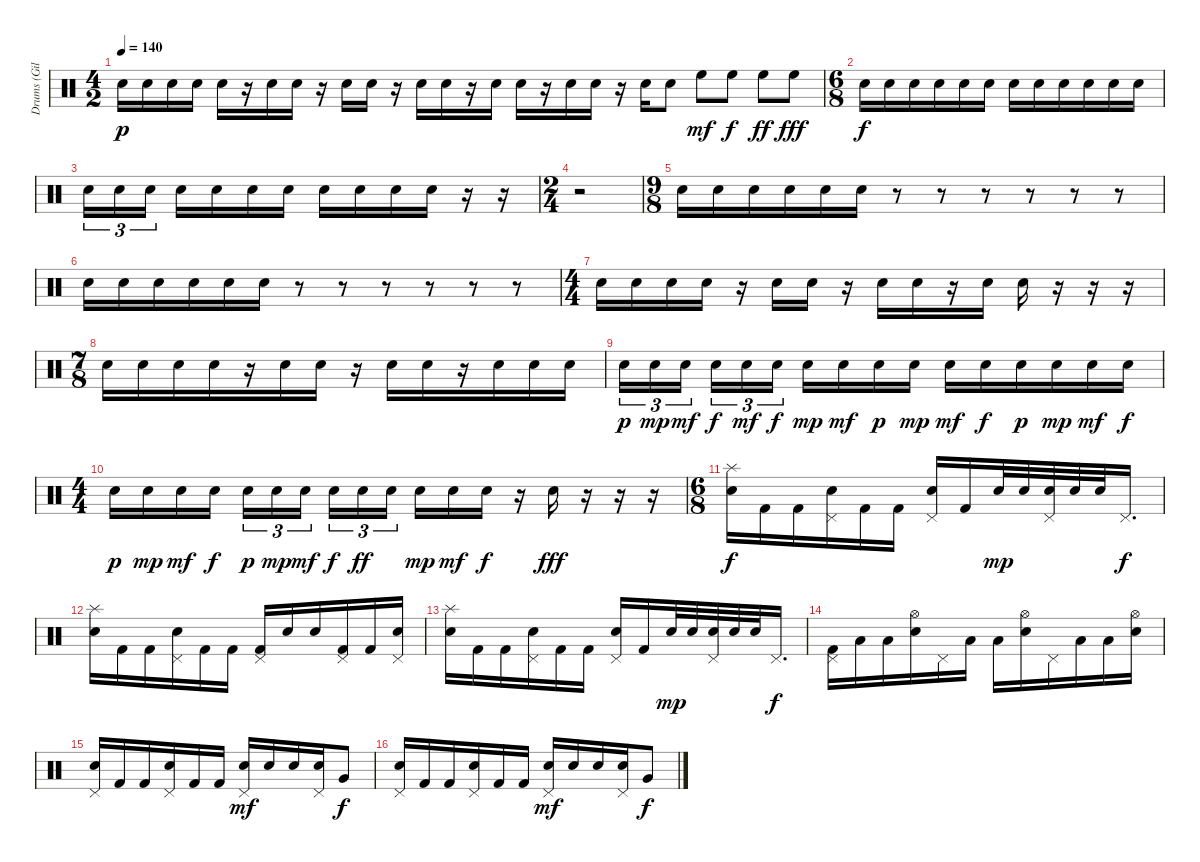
\track ("Drums (Giles)" "Drums (Gil") {instrument percussion}
\staff {score}
\articulation defaults
\ts (4 2)
\tempo 140
\clef neutral
\ks c "Electric Snare (hit)".16{dy p} "Electric Snare (hit)".16 "Electric Snare (hit)".16 "Electric Snare (hit)".16 "Electric Snare (hit)".16
r.16 "Electric Snare (hit)".16 "Electric Snare (hit)".16 r.16 "Electric Snare (hit)".16 "Electric Snare (hit)".16 r.16 "Electric Snare (hit)".16 "Electric Snare (hit)".16 r.16 "Electric Snare (hit)".16 "Electric Snare (hit)".16 r.16 "Electric Snare (hit)".16 "Electric Snare (hit)".16 r.16 "Electric Snare (hit)".16 "Electric Snare (hit)".8 "High Floor Tom (hit)".8{dy mf} "High Floor Tom (hit)".8{dy f} "High Floor Tom (hit)".8{dy ff} "High Floor Tom (hit)".8{dy fff} |
\ts (6 8)
"Electric Snare (hit)".16{dy f} "Electric Snare (hit)".16 "Electric Snare (hit)".16 "Electric Snare (hit)".16 "Electric Snare (hit)".16 "Electric Snare (hit)".16 "Electric Snare (hit)".16 "Electric Snare (hit)".16 "Electric Snare (hit)".16 "Electric Snare (hit)".16 "Electric Snare (hit)".16 "Electric Snare (hit)".16 |
"Electric Snare (hit)".16{tu (3 2)} "Electric Snare (hit)".16{tu (3 2)} "Electric Snare (hit)".16{tu (3 2) beam splitsecondary} "Electric Snare (hit)".16 "Electric Snare (hit)".16 "Electric Snare (hit)".16 "Electric Snare (hit)".16 "Electric Snare (hit)".16 "Electric Snare (hit)".16 "Electric Snare (hit)".16 "Electric Snare (hit)".16 r.16 r.16 |
\ts (2 4)
r.2 |
\ts (9 8)
"Electric Snare (hit)".16 "Electric Snare (hit)".16 "Electric Snare (hit)".16 "Electric Snare (hit)".16 "Electric Snare (hit)".16 "Electric Snare (hit)".16 r.8 r.8 r.8 r.8 r.8 r.8 |
"Electric Snare (hit)".16 "Electric Snare (hit)".16 "Electric Snare (hit)".16 "Electric Snare (hit)".16 "Electric Snare (hit)".16 "Electric Snare (hit)".16 r.8 r.8 r.8 r.8 r.8 r.8 |
\ts (4 4)
"Electric Snare (hit)".16 "Electric Snare (hit)".16 "Electric Snare (hit)".16 "Electric Snare (hit)".16 r.16 "Electric Snare (hit)".16 "Electric Snare (hit)".16 r.16 "Electric Snare (hit)".16 "Electric Snare (hit)".16 r.16 "Electric Snare (hit)".16 "Electric Snare (hit)".16 r.16 r.16 r.16 |
\ts (7 8)
"Electric Snare (hit)".16 "Electric Snare (hit)".16 "Electric Snare (hit)".16 "Electric Snare (hit)".16 r.16 "Electric Snare (hit)".16 "Electric Snare (hit)".16 r.16 "Electric Snare (hit)".16 "Electric Snare (hit)".16 r.16 "Electric Snare (hit)".16 "Electric Snare (hit)".16 "Electric Snare (hit)".16 |
"Electric Snare (hit)".16{tu (3 2) dy p} "Electric Snare (hit)".16{tu (3 2) dy mp} "Electric Snare (hit)".16{tu (3 2) dy mf} "Electric Snare (hit)".16{tu (3 2) dy f} "Electric Snare (hit)".16{tu (3 2) dy mf} "Electric Snare (hit)".16{tu (3 2) dy f} "Electric Snare (hit)".16{dy mp} "Electric Snare (hit)".16{dy mf} "Electric Snare (hit)".16{dy p} "Electric Snare (hit)".16{dy mp} "Electric Snare (hit)".16{dy mf} "Electric Snare (hit)".16{dy f} "Electric Snare (hit)".16{dy p} "Electric Snare (hit)".16{dy mp} "Electric Snare (hit)".16{dy mf} "Electric Snare (hit)".16{dy f} |
\ts (4 4)
"Electric Snare (hit)".16{dy p} "Electric Snare (hit)".16{dy mp} "Electric Snare (hit)".16{dy mf} "Electric Snare (hit)".16{dy f} "Electric Snare (hit)".16{tu (3 2) dy p} "Electric Snare (hit)".16{tu (3 2) dy mp} "Electric Snare (hit)".16{tu (3 2) dy mf beam splitsecondary} "Electric Snare (hit)".16{tu (3 2) dy f} "Electric Snare (hit)".16{tu (3 2) dy ff} "Electric Snare (hit)".16{tu (3 2)} "Electric Snare (hit)".16{dy mp} "Electric Snare (hit)".16{dy mf} "Electric Snare (hit)".16{dy f} r.16 "Electric Snare (hit)".16{dy fff} r.16 r.16 r.16 |
\ts (6 8)
("Splash (hit)" "Electric Snare (hit)").16{dy f} "Kick (hit) 2".16 "Kick (hit) 2".16 ("Pedal Hi-Hat (hit)" "Electric Snare (hit)").16 "Kick (hit) 2".16 "Kick (hit) 2".16 ("Pedal Hi-Hat (hit)" "Electric Snare (hit)").16 "Kick (hit) 2".16 "Electric Snare (hit)".32{dy mp} "Electric Snare (hit)".32 ("Pedal Hi-Hat (hit)" "Electric Snare (hit)").32 "Electric Snare (hit)".32 "Electric Snare (hit)".32 "Pedal Hi-Hat (hit)".16{d dy f} |
("Splash (hit)" "Electric Snare (hit)").16 "Kick (hit) 2".16 "Kick (hit) 2".16 ("Pedal Hi-Hat (hit)" "Electric Snare (hit)").16 "Kick (hit) 2".16 "Kick (hit) 2".16 ("Pedal Hi-Hat (hit)" "Kick (hit) 2").16 "Electric Snare (hit)".16 "Electric Snare (hit)".16 ("Pedal Hi-Hat (hit)" "Kick (hit) 2").16 "Kick (hit) 2".16 ("Pedal Hi-Hat (hit)" "Electric Snare (hit)").16 |
("Splash (hit)" "Electric Snare (hit)").16 "Kick (hit) 2".16 "Kick (hit) 2".16 ("Pedal Hi-Hat (hit)" "Electric Snare (hit)").16 "Kick (hit) 2".16 "Kick (hit) 2".16 ("Pedal Hi-Hat (hit)" "Electric Snare (hit)").16 "Kick (hit) 2".16 "Electric Snare (hit)".32{dy mp} "Electric Snare (hit)".32 ("Pedal Hi-Hat (hit)" "Electric Snare (hit)").32 "Electric Snare (hit)".32 "Electric Snare (hit)".32 "Pedal Hi-Hat (hit)".16{d dy f} |
("Pedal Hi-Hat (hit)" "Kick (hit) 2").16 "Low Tom (hit)".16 "Low Tom (hit)".16 ("Hi-Hat (open)" "Electric Snare (hit)").16 "Pedal Hi-Hat (hit)".16 "Low Tom (hit)".16 "Low Tom (hit)".16 ("Hi-Hat (open)" "Electric Snare (hit)").16 "Pedal Hi-Hat (hit)".16 "Low Tom (hit)".16 "Low Tom (hit)".16 ("Hi-Hat (open)" "Electric Snare (hit)").16 |
("Pedal Hi-Hat (hit)" "Electric Snare (hit)").16 "Kick (hit) 2".16 "Kick (hit) 2".16 ("Pedal Hi-Hat (hit)" "Electric Snare (hit)").16 "Kick (hit) 2".16 "Kick (hit) 2".16 ("Pedal Hi-Hat (hit)" "Electric Snare (hit)").16{dy mf} "Electric Snare (hit)".16 "Electric Snare (hit)".16 ("Pedal Hi-Hat (hit)" "Electric Snare (hit)").16 "Very Low Tom (hit)".8{dy f} |
("Pedal Hi-Hat (hit)" "Electric Snare (hit)").16 "Kick (hit) 2".16 "Kick (hit) 2".16 ("Pedal Hi-Hat (hit)" "Electric Snare (hit)").16 "Kick (hit) 2".16 "Kick (hit) 2".16 ("Pedal Hi-Hat (hit)" "Electric Snare (hit)").16{dy mf} "Electric Snare (hit)".16 "Electric Snare (hit)".16 ("Pedal Hi-Hat (hit)" "Electric Snare (hit)").16 "Very Low Tom (hit)".8{dy f}
